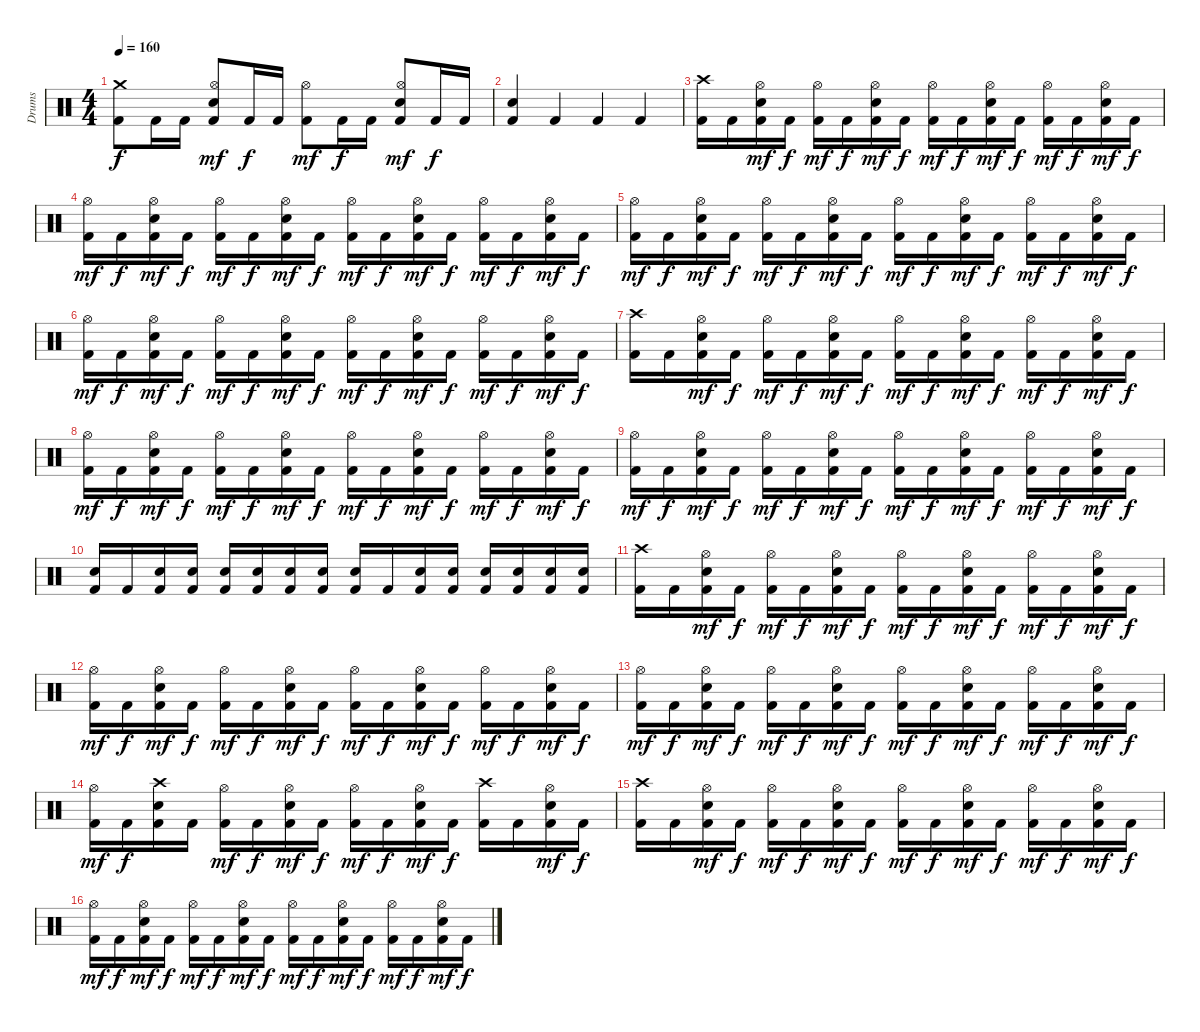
\track ("Drums" "Drums") {instrument percussion}
\staff {score}
\articulation defaults
\ts (4 4)
\tempo 160
\clef neutral
\ks c
("Crash medium (hit)" "Kick (hit) 2").8{dy f} "Kick (hit) 2".16 "Kick (hit) 2".16 ("Hi-Hat (open)" "Electric Snare (hit)" "Kick (hit) 2").8{dy mf} "Kick (hit) 2".16{dy f} "Kick (hit) 2".16 ("Hi-Hat (open)" "Kick (hit) 2").8{dy mf} "Kick (hit) 2".16{dy f} "Kick (hit) 2".16 ("Hi-Hat (open)" "Electric Snare (hit)" "Kick (hit) 2").8{dy mf} "Kick (hit) 2".16{dy f} "Kick (hit) 2".16 |
("Electric Snare (hit)" "Kick (hit) 2").4 "Kick (hit) 2".4 "Kick (hit) 2".4 "Kick (hit) 2".4 |
("Crash high (hit)" "Kick (hit) 2").16 "Kick (hit) 2".16 ("Hi-Hat (open)" "Electric Snare (hit)" "Kick (hit) 2").16{dy mf} "Kick (hit) 2".16{dy f} ("Hi-Hat (open)" "Kick (hit) 2").16{dy mf} "Kick (hit) 2".16{dy f} ("Hi-Hat (open)" "Electric Snare (hit)" "Kick (hit) 2").16{dy mf} "Kick (hit) 2".16{dy f} ("Hi-Hat (open)" "Kick (hit) 2").16{dy mf} "Kick (hit) 2".16{dy f} ("Hi-Hat (open)" "Electric Snare (hit)" "Kick (hit) 2").16{dy mf} "Kick (hit) 2".16{dy f} ("Hi-Hat (open)" "Kick (hit) 2").16{dy mf} "Kick (hit) 2".16{dy f} ("Hi-Hat (open)" "Electric Snare (hit)" "Kick (hit) 2").16{dy mf} "Kick (hit) 2".16{dy f} |
("Hi-Hat (open)" "Kick (hit) 2").16{dy mf} "Kick (hit) 2".16{dy f} ("Hi-Hat (open)" "Electric Snare (hit)" "Kick (hit) 2").16{dy mf} "Kick (hit) 2".16{dy f} ("Hi-Hat (open)" "Kick (hit) 2").16{dy mf} "Kick (hit) 2".16{dy f} ("Hi-Hat (open)" "Electric Snare (hit)" "Kick (hit) 2").16{dy mf} "Kick (hit) 2".16{dy f} ("Hi-Hat (open)" "Kick (hit) 2").16{dy mf} "Kick (hit) 2".16{dy f} ("Hi-Hat (open)" "Electric Snare (hit)" "Kick (hit) 2").16{dy mf} "Kick (hit) 2".16{dy f} ("Hi-Hat (open)" "Kick (hit) 2").16{dy mf} "Kick (hit) 2".16{dy f} ("Hi-Hat (open)" "Electric Snare (hit)" "Kick (hit) 2").16{dy mf} "Kick (hit) 2".16{dy f} |
("Hi-Hat (open)" "Kick (hit) 2").16{dy mf} "Kick (hit) 2".16{dy f} ("Hi-Hat (open)" "Electric Snare (hit)" "Kick (hit) 2").16{dy mf} "Kick (hit) 2".16{dy f} ("Hi-Hat (open)" "Kick (hit) 2").16{dy mf} "Kick (hit) 2".16{dy f} ("Hi-Hat (open)" "Electric Snare (hit)" "Kick (hit) 2").16{dy mf} "Kick (hit) 2".16{dy f} ("Hi-Hat (open)" "Kick (hit) 2").16{dy mf} "Kick (hit) 2".16{dy f} ("Hi-Hat (open)" "Electric Snare (hit)" "Kick (hit) 2").16{dy mf} "Kick (hit) 2".16{dy f} ("Hi-Hat (open)" "Kick (hit) 2").16{dy mf} "Kick (hit) 2".16{dy f} ("Hi-Hat (open)" "Electric Snare (hit)" "Kick (hit) 2").16{dy mf} "Kick (hit) 2".16{dy f} |
("Hi-Hat (open)" "Kick (hit) 2").16{dy mf} "Kick (hit) 2".16{dy f} ("Hi-Hat (open)" "Electric Snare (hit)" "Kick (hit) 2").16{dy mf} "Kick (hit) 2".16{dy f} ("Hi-Hat (open)" "Kick (hit) 2").16{dy mf} "Kick (hit) 2".16{dy f} ("Hi-Hat (open)" "Electric Snare (hit)" "Kick (hit) 2").16{dy mf} "Kick (hit) 2".16{dy f} ("Hi-Hat (open)" "Kick (hit) 2").16{dy mf} "Kick (hit) 2".16{dy f} ("Hi-Hat (open)" "Electric Snare (hit)" "Kick (hit) 2").16{dy mf} "Kick (hit) 2".16{dy f} ("Hi-Hat (open)" "Kick (hit) 2").16{dy mf} "Kick (hit) 2".16{dy f} ("Hi-Hat (open)" "Electric Snare (hit)" "Kick (hit) 2").16{dy mf} "Kick (hit) 2".16{dy f} |
("Crash high (hit)" "Kick (hit) 2").16 "Kick (hit) 2".16 ("Hi-Hat (open)" "Electric Snare (hit)" "Kick (hit) 2").16{dy mf} "Kick (hit) 2".16{dy f} ("Hi-Hat (open)" "Kick (hit) 2").16{dy mf} "Kick (hit) 2".16{dy f} ("Hi-Hat (open)" "Electric Snare (hit)" "Kick (hit) 2").16{dy mf} "Kick (hit) 2".16{dy f} ("Hi-Hat (open)" "Kick (hit) 2").16{dy mf} "Kick (hit) 2".16{dy f} ("Hi-Hat (open)" "Electric Snare (hit)" "Kick (hit) 2").16{dy mf} "Kick (hit) 2".16{dy f} ("Hi-Hat (open)" "Kick (hit) 2").16{dy mf} "Kick (hit) 2".16{dy f} ("Hi-Hat (open)" "Electric Snare (hit)" "Kick (hit) 2").16{dy mf} "Kick (hit) 2".16{dy f} |
("Hi-Hat (open)" "Kick (hit) 2").16{dy mf} "Kick (hit) 2".16{dy f} ("Hi-Hat (open)" "Electric Snare (hit)" "Kick (hit) 2").16{dy mf} "Kick (hit) 2".16{dy f} ("Hi-Hat (open)" "Kick (hit) 2").16{dy mf} "Kick (hit) 2".16{dy f} ("Hi-Hat (open)" "Electric Snare (hit)" "Kick (hit) 2").16{dy mf} "Kick (hit) 2".16{dy f} ("Hi-Hat (open)" "Kick (hit) 2").16{dy mf} "Kick (hit) 2".16{dy f} ("Hi-Hat (open)" "Electric Snare (hit)" "Kick (hit) 2").16{dy mf} "Kick (hit) 2".16{dy f} ("Hi-Hat (open)" "Kick (hit) 2").16{dy mf} "Kick (hit) 2".16{dy f} ("Hi-Hat (open)" "Electric Snare (hit)" "Kick (hit) 2").16{dy mf} "Kick (hit) 2".16{dy f} |
("Hi-Hat (open)" "Kick (hit) 2").16{dy mf} "Kick (hit) 2".16{dy f} ("Hi-Hat (open)" "Electric Snare (hit)" "Kick (hit) 2").16{dy mf} "Kick (hit) 2".16{dy f} ("Hi-Hat (open)" "Kick (hit) 2").16{dy mf} "Kick (hit) 2".16{dy f} ("Hi-Hat (open)" "Electric Snare (hit)" "Kick (hit) 2").16{dy mf} "Kick (hit) 2".16{dy f} ("Hi-Hat (open)" "Kick (hit) 2").16{dy mf} "Kick (hit) 2".16{dy f} ("Hi-Hat (open)" "Electric Snare (hit)" "Kick (hit) 2").16{dy mf} "Kick (hit) 2".16{dy f} ("Hi-Hat (open)" "Kick (hit) 2").16{dy mf} "Kick (hit) 2".16{dy f} ("Hi-Hat (open)" "Electric Snare (hit)" "Kick (hit) 2").16{dy mf} "Kick (hit) 2".16{dy f} |
("Electric Snare (hit)" "Kick (hit) 2").16 "Kick (hit) 2".16 ("Electric Snare (hit)" "Kick (hit) 2").16 ("Electric Snare (hit)" "Kick (hit) 2").16 ("Electric Snare (hit)" "Kick (hit) 2").16 ("Electric Snare (hit)" "Kick (hit) 2").16 ("Electric Snare (hit)" "Kick (hit) 2").16 ("Electric Snare (hit)" "Kick (hit) 2").16 ("Electric Snare (hit)" "Kick (hit) 2").16 "Kick (hit) 2".16 ("Electric Snare (hit)" "Kick (hit) 2").16 ("Electric Snare (hit)" "Kick (hit) 2").16 ("Electric Snare (hit)" "Kick (hit) 2").16 ("Electric Snare (hit)" "Kick (hit) 2").16 ("Electric Snare (hit)" "Kick (hit) 2").16 ("Electric Snare (hit)" "Kick (hit) 2").16 |
("Crash high (hit)" "Kick (hit) 2").16 "Kick (hit) 2".16 ("Hi-Hat (open)" "Electric Snare (hit)" "Kick (hit) 2").16{dy mf} "Kick (hit) 2".16{dy f} ("Hi-Hat (open)" "Kick (hit) 2").16{dy mf} "Kick (hit) 2".16{dy f} ("Hi-Hat (open)" "Electric Snare (hit)" "Kick (hit) 2").16{dy mf} "Kick (hit) 2".16{dy f} ("Hi-Hat (open)" "Kick (hit) 2").16{dy mf} "Kick (hit) 2".16{dy f} ("Hi-Hat (open)" "Electric Snare (hit)" "Kick (hit) 2").16{dy mf} "Kick (hit) 2".16{dy f} ("Hi-Hat (open)" "Kick (hit) 2").16{dy mf} "Kick (hit) 2".16{dy f} ("Hi-Hat (open)" "Electric Snare (hit)" "Kick (hit) 2").16{dy mf} "Kick (hit) 2".16{dy f} |
("Hi-Hat (open)" "Kick (hit) 2").16{dy mf} "Kick (hit) 2".16{dy f} ("Hi-Hat (open)" "Electric Snare (hit)" "Kick (hit) 2").16{dy mf} "Kick (hit) 2".16{dy f} ("Hi-Hat (open)" "Kick (hit) 2").16{dy mf} "Kick (hit) 2".16{dy f} ("Hi-Hat (open)" "Electric Snare (hit)" "Kick (hit) 2").16{dy mf} "Kick (hit) 2".16{dy f} ("Hi-Hat (open)" "Kick (hit) 2").16{dy mf} "Kick (hit) 2".16{dy f} ("Hi-Hat (open)" "Electric Snare (hit)" "Kick (hit) 2").16{dy mf} "Kick (hit) 2".16{dy f} ("Hi-Hat (open)" "Kick (hit) 2").16{dy mf} "Kick (hit) 2".16{dy f} ("Hi-Hat (open)" "Electric Snare (hit)" "Kick (hit) 2").16{dy mf} "Kick (hit) 2".16{dy f} |
("Hi-Hat (open)" "Kick (hit) 2").16{dy mf} "Kick (hit) 2".16{dy f} ("Hi-Hat (open)" "Electric Snare (hit)" "Kick (hit) 2").16{dy mf} "Kick (hit) 2".16{dy f} ("Hi-Hat (open)" "Kick (hit) 2").16{dy mf} "Kick (hit) 2".16{dy f} ("Hi-Hat (open)" "Electric Snare (hit)" "Kick (hit) 2").16{dy mf} "Kick (hit) 2".16{dy f} ("Hi-Hat (open)" "Kick (hit) 2").16{dy mf} "Kick (hit) 2".16{dy f} ("Hi-Hat (open)" "Electric Snare (hit)" "Kick (hit) 2").16{dy mf} "Kick (hit) 2".16{dy f} ("Hi-Hat (open)" "Kick (hit) 2").16{dy mf} "Kick (hit) 2".16{dy f} ("Hi-Hat (open)" "Electric Snare (hit)" "Kick (hit) 2").16{dy mf} "Kick (hit) 2".16{dy f} |
("Hi-Hat (open)" "Kick (hit) 2").16{dy mf} "Kick (hit) 2".16{dy f} ("Crash high (hit)" "Electric Snare (hit)" "Kick (hit) 2").16 "Kick (hit) 2".16 ("Hi-Hat (open)" "Kick (hit) 2").16{dy mf} "Kick (hit) 2".16{dy f} ("Hi-Hat (open)" "Electric Snare (hit)" "Kick (hit) 2").16{dy mf} "Kick (hit) 2".16{dy f} ("Hi-Hat (open)" "Kick (hit) 2").16{dy mf} "Kick (hit) 2".16{dy f} ("Hi-Hat (open)" "Electric Snare (hit)" "Kick (hit) 2").16{dy mf} "Kick (hit) 2".16{dy f} ("Crash high (hit)" "Kick (hit) 2").16 "Kick (hit) 2".16 ("Hi-Hat (open)" "Electric Snare (hit)" "Kick (hit) 2").16{dy mf} "Kick (hit) 2".16{dy f} |
("Crash high (hit)" "Kick (hit) 2").16 "Kick (hit) 2".16 ("Hi-Hat (open)" "Electric Snare (hit)" "Kick (hit) 2").16{dy mf} "Kick (hit) 2".16{dy f} ("Hi-Hat (open)" "Kick (hit) 2").16{dy mf} "Kick (hit) 2".16{dy f} ("Hi-Hat (open)" "Electric Snare (hit)" "Kick (hit) 2").16{dy mf} "Kick (hit) 2".16{dy f} ("Hi-Hat (open)" "Kick (hit) 2").16{dy mf} "Kick (hit) 2".16{dy f} ("Hi-Hat (open)" "Electric Snare (hit)" "Kick (hit) 2").16{dy mf} "Kick (hit) 2".16{dy f} ("Hi-Hat (open)" "Kick (hit) 2").16{dy mf} "Kick (hit) 2".16{dy f} ("Hi-Hat (open)" "Electric Snare (hit)" "Kick (hit) 2").16{dy mf} "Kick (hit) 2".16{dy f} |
("Hi-Hat (open)" "Kick (hit) 2").16{dy mf} "Kick (hit) 2".16{dy f} ("Hi-Hat (open)" "Electric Snare (hit)" "Kick (hit) 2").16{dy mf} "Kick (hit) 2".16{dy f} ("Hi-Hat (open)" "Kick (hit) 2").16{dy mf} "Kick (hit) 2".16{dy f} ("Hi-Hat (open)" "Electric Snare (hit)" "Kick (hit) 2").16{dy mf} "Kick (hit) 2".16{dy f} ("Hi-Hat (open)" "Kick (hit) 2").16{dy mf} "Kick (hit) 2".16{dy f} ("Hi-Hat (open)" "Electric Snare (hit)" "Kick (hit) 2").16{dy mf} "Kick (hit) 2".16{dy f} ("Hi-Hat (open)" "Kick (hit) 2").16{dy mf} "Kick (hit) 2".16{dy f} ("Hi-Hat (open)" "Electric Snare (hit)" "Kick (hit) 2").16{dy mf} "Kick (hit) 2".16{dy f}
